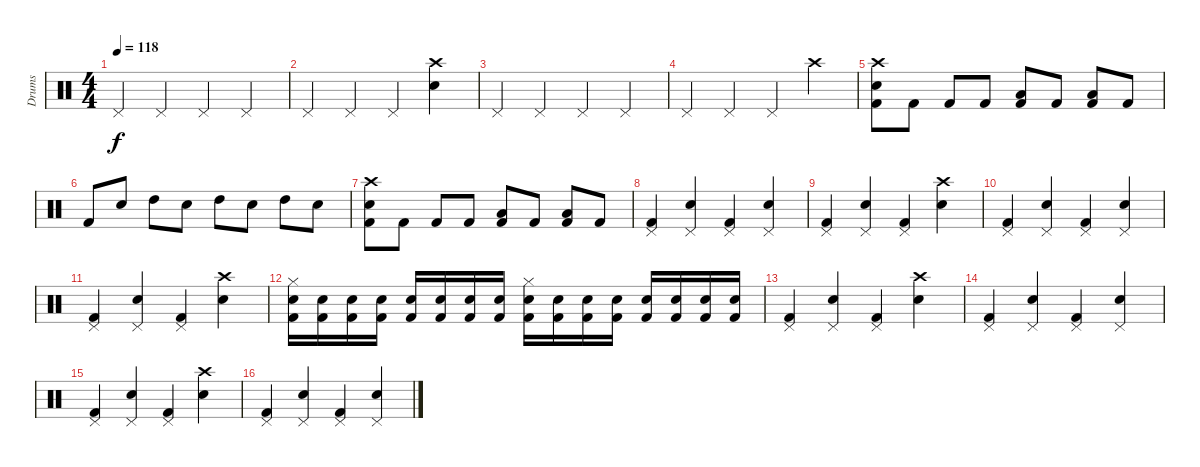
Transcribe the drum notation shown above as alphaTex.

\track ("Drums" "Drums") {instrument percussion}
\staff {score}
\articulation defaults
\ts (4 4)
\tempo 118
\clef neutral
\ks c "Pedal Hi-Hat (hit)".4{dy f} "Pedal Hi-Hat (hit)".4 "Pedal Hi-Hat (hit)".4 "Pedal Hi-Hat (hit)".4
|
"Pedal Hi-Hat (hit)".4 "Pedal Hi-Hat (hit)".4 "Pedal Hi-Hat (hit)".4 ("Crash high (hit)" "Snare (hit) 2").4 |
"Pedal Hi-Hat (hit)".4 "Pedal Hi-Hat (hit)".4 "Pedal Hi-Hat (hit)".4 "Pedal Hi-Hat (hit)".4 |
"Pedal Hi-Hat (hit)".4 "Pedal Hi-Hat (hit)".4 "Pedal Hi-Hat (hit)".4 "Crash high (hit)".4 |
("Crash high (hit)" "Snare (hit) 2" "Kick (hit) 2").8 "Kick (hit) 2".8 "Kick (hit) 2".8 "Kick (hit) 2".8 ("Low Floor Tom (hit)" "Kick (hit) 2").8 "Kick (hit) 2".8 ("Low Floor Tom (hit)" "Kick (hit) 2").8 "Kick (hit) 2".8 |
"Kick (hit) 2".8 "Snare (hit) 2".8 "High Tom (hit)".8 "Snare (hit) 2".8 "High Tom (hit)".8 "Snare (hit) 2".8 "High Tom (hit)".8 "Snare (hit) 2".8 |
("Crash high (hit)" "Snare (hit) 2" "Kick (hit) 2").8 "Kick (hit) 2".8 "Kick (hit) 2".8 "Kick (hit) 2".8 ("Low Floor Tom (hit)" "Kick (hit) 2").8 "Kick (hit) 2".8 ("Low Floor Tom (hit)" "Kick (hit) 2").8 "Kick (hit) 2".8 |
("Pedal Hi-Hat (hit)" "Kick (hit) 2").4 ("Pedal Hi-Hat (hit)" "Snare (hit) 2").4 ("Pedal Hi-Hat (hit)" "Kick (hit) 2").4 ("Pedal Hi-Hat (hit)" "Snare (hit) 2").4 |
("Pedal Hi-Hat (hit)" "Kick (hit) 2").4 ("Pedal Hi-Hat (hit)" "Snare (hit) 2").4 ("Pedal Hi-Hat (hit)" "Kick (hit) 2").4 ("Crash high (hit)" "Snare (hit) 2").4 |
("Pedal Hi-Hat (hit)" "Kick (hit) 2").4 ("Pedal Hi-Hat (hit)" "Snare (hit) 2").4 ("Pedal Hi-Hat (hit)" "Kick (hit) 2").4 ("Pedal Hi-Hat (hit)" "Snare (hit) 2").4 |
("Pedal Hi-Hat (hit)" "Kick (hit) 2").4 ("Pedal Hi-Hat (hit)" "Snare (hit) 2").4 ("Pedal Hi-Hat (hit)" "Kick (hit) 2").4 ("Crash high (hit)" "Snare (hit) 2").4 |
("Hi-Hat (closed)" "Snare (hit) 2" "Kick (hit) 2").16 ("Snare (hit) 2" "Kick (hit) 2").16 ("Snare (hit) 2" "Kick (hit) 2").16 ("Snare (hit) 2" "Kick (hit) 2").16 ("Snare (hit) 2" "Kick (hit) 2").16 ("Snare (hit) 2" "Kick (hit) 2").16 ("Snare (hit) 2" "Kick (hit) 2").16 ("Snare (hit) 2" "Kick (hit) 2").16 ("Hi-Hat (closed)" "Snare (hit) 2" "Kick (hit) 2").16 ("Snare (hit) 2" "Kick (hit) 2").16 ("Snare (hit) 2" "Kick (hit) 2").16 ("Snare (hit) 2" "Kick (hit) 2").16 ("Snare (hit) 2" "Kick (hit) 2").16 ("Snare (hit) 2" "Kick (hit) 2").16 ("Snare (hit) 2" "Kick (hit) 2").16 ("Snare (hit) 2" "Kick (hit) 2").16 |
("Pedal Hi-Hat (hit)" "Kick (hit) 2").4 ("Pedal Hi-Hat (hit)" "Snare (hit) 2").4 ("Pedal Hi-Hat (hit)" "Kick (hit) 2").4 ("Crash high (hit)" "Snare (hit) 2").4 |
("Pedal Hi-Hat (hit)" "Kick (hit) 2").4 ("Pedal Hi-Hat (hit)" "Snare (hit) 2").4 ("Pedal Hi-Hat (hit)" "Kick (hit) 2").4 ("Pedal Hi-Hat (hit)" "Snare (hit) 2").4 |
("Pedal Hi-Hat (hit)" "Kick (hit) 2").4 ("Pedal Hi-Hat (hit)" "Snare (hit) 2").4 ("Pedal Hi-Hat (hit)" "Kick (hit) 2").4 ("Crash high (hit)" "Snare (hit) 2").4 |
("Pedal Hi-Hat (hit)" "Kick (hit) 2").4 ("Pedal Hi-Hat (hit)" "Snare (hit) 2").4 ("Pedal Hi-Hat (hit)" "Kick (hit) 2").4 ("Pedal Hi-Hat (hit)" "Snare (hit) 2").4
